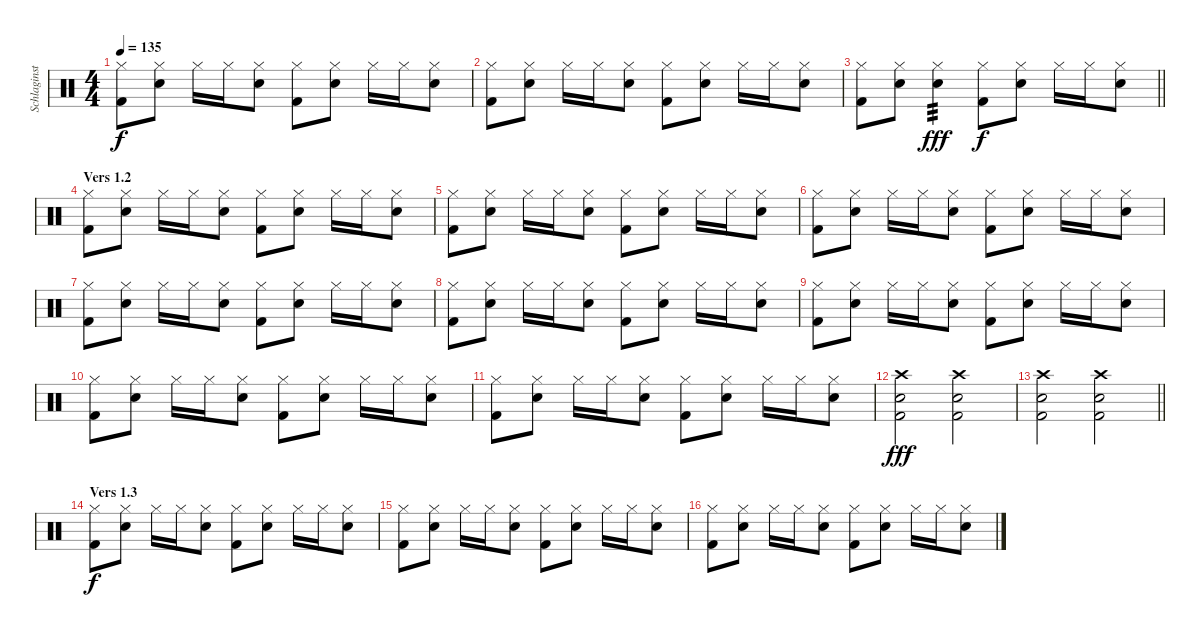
\track ("Schlaginstrumente - Auswahl" "Schlaginst") {instrument percussion}
\staff {score}
\articulation defaults
\ts (4 4)
\tempo 135
\clef neutral
\ks c
("Hi-Hat (closed)" "Kick (hit) 2").8{dy f} ("Hi-Hat (closed)" "Snare (hit) 2").8 "Hi-Hat (closed)".16 "Hi-Hat (closed)".16 ("Hi-Hat (closed)" "Snare (hit) 2").8 ("Hi-Hat (closed)" "Kick (hit) 2").8 ("Hi-Hat (closed)" "Snare (hit) 2").8 "Hi-Hat (closed)".16 "Hi-Hat (closed)".16 ("Hi-Hat (closed)" "Snare (hit) 2").8 |
("Hi-Hat (closed)" "Kick (hit) 2").8 ("Hi-Hat (closed)" "Snare (hit) 2").8 "Hi-Hat (closed)".16 "Hi-Hat (closed)".16 ("Hi-Hat (closed)" "Snare (hit) 2").8 ("Hi-Hat (closed)" "Kick (hit) 2").8 ("Hi-Hat (closed)" "Snare (hit) 2").8 "Hi-Hat (closed)".16 "Hi-Hat (closed)".16 ("Hi-Hat (closed)" "Snare (hit) 2").8 |
\barLineRight lightlight
("Hi-Hat (closed)" "Kick (hit) 2").8 ("Hi-Hat (closed)" "Snare (hit) 2").8 ("Hi-Hat (closed)" "Snare (hit) 2").4{tp 3 dy fff} ("Hi-Hat (closed)" "Kick (hit) 2").8{dy f} ("Hi-Hat (closed)" "Snare (hit) 2").8 "Hi-Hat (closed)".16 "Hi-Hat (closed)".16 ("Hi-Hat (closed)" "Snare (hit) 2").8 |
\section ("" "Vers 1.2")
("Hi-Hat (closed)" "Kick (hit) 2").8 ("Hi-Hat (closed)" "Snare (hit) 2").8 "Hi-Hat (closed)".16 "Hi-Hat (closed)".16 ("Hi-Hat (closed)" "Snare (hit) 2").8 ("Hi-Hat (closed)" "Kick (hit) 2").8 ("Hi-Hat (closed)" "Snare (hit) 2").8 "Hi-Hat (closed)".16 "Hi-Hat (closed)".16 ("Hi-Hat (closed)" "Snare (hit) 2").8 |
("Hi-Hat (closed)" "Kick (hit) 2").8 ("Hi-Hat (closed)" "Snare (hit) 2").8 "Hi-Hat (closed)".16 "Hi-Hat (closed)".16 ("Hi-Hat (closed)" "Snare (hit) 2").8 ("Hi-Hat (closed)" "Kick (hit) 2").8 ("Hi-Hat (closed)" "Snare (hit) 2").8 "Hi-Hat (closed)".16 "Hi-Hat (closed)".16 ("Hi-Hat (closed)" "Snare (hit) 2").8 |
("Hi-Hat (closed)" "Kick (hit) 2").8 ("Hi-Hat (closed)" "Snare (hit) 2").8 "Hi-Hat (closed)".16 "Hi-Hat (closed)".16 ("Hi-Hat (closed)" "Snare (hit) 2").8 ("Hi-Hat (closed)" "Kick (hit) 2").8 ("Hi-Hat (closed)" "Snare (hit) 2").8 "Hi-Hat (closed)".16 "Hi-Hat (closed)".16 ("Hi-Hat (closed)" "Snare (hit) 2").8 |
("Hi-Hat (closed)" "Kick (hit) 2").8 ("Hi-Hat (closed)" "Snare (hit) 2").8 "Hi-Hat (closed)".16 "Hi-Hat (closed)".16 ("Hi-Hat (closed)" "Snare (hit) 2").8 ("Hi-Hat (closed)" "Kick (hit) 2").8 ("Hi-Hat (closed)" "Snare (hit) 2").8 "Hi-Hat (closed)".16 "Hi-Hat (closed)".16 ("Hi-Hat (closed)" "Snare (hit) 2").8 |
("Hi-Hat (closed)" "Kick (hit) 2").8 ("Hi-Hat (closed)" "Snare (hit) 2").8 "Hi-Hat (closed)".16 "Hi-Hat (closed)".16 ("Hi-Hat (closed)" "Snare (hit) 2").8 ("Hi-Hat (closed)" "Kick (hit) 2").8 ("Hi-Hat (closed)" "Snare (hit) 2").8 "Hi-Hat (closed)".16 "Hi-Hat (closed)".16 ("Hi-Hat (closed)" "Snare (hit) 2").8 |
("Hi-Hat (closed)" "Kick (hit) 2").8 ("Hi-Hat (closed)" "Snare (hit) 2").8 "Hi-Hat (closed)".16 "Hi-Hat (closed)".16 ("Hi-Hat (closed)" "Snare (hit) 2").8 ("Hi-Hat (closed)" "Kick (hit) 2").8 ("Hi-Hat (closed)" "Snare (hit) 2").8 "Hi-Hat (closed)".16 "Hi-Hat (closed)".16 ("Hi-Hat (closed)" "Snare (hit) 2").8 |
("Hi-Hat (closed)" "Kick (hit) 2").8 ("Hi-Hat (closed)" "Snare (hit) 2").8 "Hi-Hat (closed)".16 "Hi-Hat (closed)".16 ("Hi-Hat (closed)" "Snare (hit) 2").8 ("Hi-Hat (closed)" "Kick (hit) 2").8 ("Hi-Hat (closed)" "Snare (hit) 2").8 "Hi-Hat (closed)".16 "Hi-Hat (closed)".16 ("Hi-Hat (closed)" "Snare (hit) 2").8 |
("Hi-Hat (closed)" "Kick (hit) 2").8 ("Hi-Hat (closed)" "Snare (hit) 2").8 "Hi-Hat (closed)".16 "Hi-Hat (closed)".16 ("Hi-Hat (closed)" "Snare (hit) 2").8 ("Hi-Hat (closed)" "Kick (hit) 2").8 ("Hi-Hat (closed)" "Snare (hit) 2").8 "Hi-Hat (closed)".16 "Hi-Hat (closed)".16 ("Hi-Hat (closed)" "Snare (hit) 2").8 |
("Kick (hit) 2" "Crash high (hit)" "Snare (hit) 2").2{dy fff} ("Kick (hit) 2" "Crash high (hit)" "Snare (hit) 2").2 |
\barLineRight lightlight
("Kick (hit) 2" "Crash high (hit)" "Snare (hit) 2").2 ("Kick (hit) 2" "Crash high (hit)" "Snare (hit) 2").2 |
\section ("" "Vers 1.3")
("Hi-Hat (closed)" "Kick (hit) 2").8{dy f} ("Hi-Hat (closed)" "Snare (hit) 2").8 "Hi-Hat (closed)".16 "Hi-Hat (closed)".16 ("Hi-Hat (closed)" "Snare (hit) 2").8 ("Hi-Hat (closed)" "Kick (hit) 2").8 ("Hi-Hat (closed)" "Snare (hit) 2").8 "Hi-Hat (closed)".16 "Hi-Hat (closed)".16 ("Hi-Hat (closed)" "Snare (hit) 2").8 |
("Hi-Hat (closed)" "Kick (hit) 2").8 ("Hi-Hat (closed)" "Snare (hit) 2").8 "Hi-Hat (closed)".16 "Hi-Hat (closed)".16 ("Hi-Hat (closed)" "Snare (hit) 2").8 ("Hi-Hat (closed)" "Kick (hit) 2").8 ("Hi-Hat (closed)" "Snare (hit) 2").8 "Hi-Hat (closed)".16 "Hi-Hat (closed)".16 ("Hi-Hat (closed)" "Snare (hit) 2").8 |
("Hi-Hat (closed)" "Kick (hit) 2").8 ("Hi-Hat (closed)" "Snare (hit) 2").8 "Hi-Hat (closed)".16 "Hi-Hat (closed)".16 ("Hi-Hat (closed)" "Snare (hit) 2").8 ("Hi-Hat (closed)" "Kick (hit) 2").8 ("Hi-Hat (closed)" "Snare (hit) 2").8 "Hi-Hat (closed)".16 "Hi-Hat (closed)".16 ("Hi-Hat (closed)" "Snare (hit) 2").8
